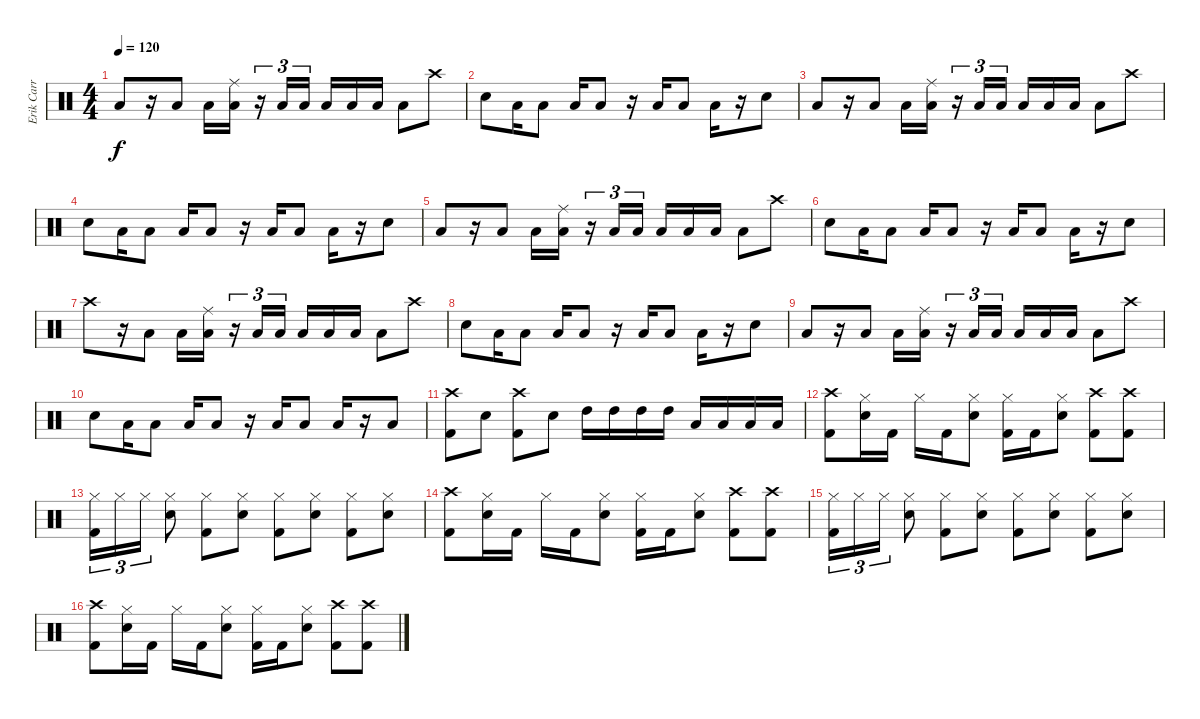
\track ("Erik Carr / Drums" "Erik Carr ") {instrument percussion}
\staff {score}
\articulation defaults
\ts (4 4)
\tempo 120
\clef neutral
\ks c "Low Tom (hit)".8{dy f}
r.16 "Low Tom (hit)".8 "Low Tom (hit)".16 ("Low Tom (hit)" "Ride (middle)").16 r.16{tu (3 2)} "Low Tom (hit)".16{tu (3 2)} "Low Tom (hit)".16{tu (3 2)} "Low Tom (hit)".16 "Low Tom (hit)".16 "Low Tom (hit)".16 "Low Tom (hit)".8 "Crash high (hit)".8 |
"Electric Snare (hit)".8 "Low Tom (hit)".16 "Low Tom (hit)".8 "Low Tom (hit)".16 "Low Tom (hit)".8 r.16 "Low Tom (hit)".16 "Low Tom (hit)".8 "Low Tom (hit)".16 r.16 "Electric Snare (hit)".8 |
"Low Tom (hit)".8 r.16 "Low Tom (hit)".8 "Low Tom (hit)".16 ("Low Tom (hit)" "Ride (middle)").16 r.16{tu (3 2)} "Low Tom (hit)".16{tu (3 2)} "Low Tom (hit)".16{tu (3 2)} "Low Tom (hit)".16 "Low Tom (hit)".16 "Low Tom (hit)".16 "Low Tom (hit)".8 "Crash high (hit)".8 |
"Electric Snare (hit)".8 "Low Tom (hit)".16 "Low Tom (hit)".8 "Low Tom (hit)".16 "Low Tom (hit)".8 r.16 "Low Tom (hit)".16 "Low Tom (hit)".8 "Low Tom (hit)".16 r.16 "Electric Snare (hit)".8 |
"Low Tom (hit)".8 r.16 "Low Tom (hit)".8 "Low Tom (hit)".16 ("Low Tom (hit)" "Ride (middle)").16 r.16{tu (3 2)} "Low Tom (hit)".16{tu (3 2)} "Low Tom (hit)".16{tu (3 2)} "Low Tom (hit)".16 "Low Tom (hit)".16 "Low Tom (hit)".16 "Low Tom (hit)".8 "Crash high (hit)".8 |
"Electric Snare (hit)".8 "Low Tom (hit)".16 "Low Tom (hit)".8 "Low Tom (hit)".16 "Low Tom (hit)".8 r.16 "Low Tom (hit)".16 "Low Tom (hit)".8 "Low Tom (hit)".16 r.16 "Electric Snare (hit)".8 |
"Crash high (hit)".8 r.16 "Low Tom (hit)".8 "Low Tom (hit)".16 ("Low Tom (hit)" "Ride (middle)").16 r.16{tu (3 2)} "Low Tom (hit)".16{tu (3 2)} "Low Tom (hit)".16{tu (3 2)} "Low Tom (hit)".16 "Low Tom (hit)".16 "Low Tom (hit)".16 "Low Tom (hit)".8 "Crash high (hit)".8 |
"Electric Snare (hit)".8 "Low Tom (hit)".16 "Low Tom (hit)".8 "Low Tom (hit)".16 "Low Tom (hit)".8 r.16 "Low Tom (hit)".16 "Low Tom (hit)".8 "Low Tom (hit)".16 r.16 "Electric Snare (hit)".8 |
"Low Tom (hit)".8 r.16 "Low Tom (hit)".8 "Low Tom (hit)".16 ("Low Tom (hit)" "Ride (middle)").16 r.16{tu (3 2)} "Low Tom (hit)".16{tu (3 2)} "Low Tom (hit)".16{tu (3 2)} "Low Tom (hit)".16 "Low Tom (hit)".16 "Low Tom (hit)".16 "Low Tom (hit)".8 "Crash high (hit)".8 |
"Electric Snare (hit)".8 "Low Tom (hit)".16 "Low Tom (hit)".8 "Low Tom (hit)".16 "Low Tom (hit)".8 r.16 "Low Tom (hit)".16 "Low Tom (hit)".8 "Low Tom (hit)".16 r.16 "Low Tom (hit)".8 |
("Crash high (hit)" "Kick (hit) 2").8 "Electric Snare (hit)".8 ("Crash high (hit)" "Kick (hit) 2").8 "Electric Snare (hit)".8 "High Tom (hit)".16 "High Tom (hit)".16 "High Tom (hit)".16 "High Tom (hit)".16 "Low Tom (hit)".16 "Low Tom (hit)".16 "Low Tom (hit)".16 "Low Tom (hit)".16 |
("Crash high (hit)" "Kick (hit) 2").8 ("Hi-Hat (closed)" "Electric Snare (hit)").16 "Kick (hit) 2".16 "Hi-Hat (closed)".16 "Kick (hit) 2".16 ("Hi-Hat (closed)" "Electric Snare (hit)").8 ("Hi-Hat (closed)" "Kick (hit) 2").16 "Kick (hit) 2".16 ("Hi-Hat (closed)" "Electric Snare (hit)").8 ("Crash high (hit)" "Kick (hit) 2").8 ("Crash high (hit)" "Kick (hit) 2").8 |
("Hi-Hat (closed)" "Kick (hit) 2").16{tu (3 2)} "Hi-Hat (closed)".16{tu (3 2)} "Hi-Hat (closed)".16{tu (3 2)} ("Hi-Hat (closed)" "Electric Snare (hit)").8 ("Hi-Hat (closed)" "Kick (hit) 2").8 ("Hi-Hat (closed)" "Electric Snare (hit)").8 ("Hi-Hat (closed)" "Kick (hit) 2").8 ("Hi-Hat (closed)" "Electric Snare (hit)").8 ("Hi-Hat (closed)" "Kick (hit) 2").8 ("Hi-Hat (closed)" "Electric Snare (hit)").8 |
("Crash high (hit)" "Kick (hit) 2").8 ("Hi-Hat (closed)" "Electric Snare (hit)").16 "Kick (hit) 2".16 "Hi-Hat (closed)".16 "Kick (hit) 2".16 ("Hi-Hat (closed)" "Electric Snare (hit)").8 ("Hi-Hat (closed)" "Kick (hit) 2").16 "Kick (hit) 2".16 ("Hi-Hat (closed)" "Electric Snare (hit)").8 ("Crash high (hit)" "Kick (hit) 2").8 ("Crash high (hit)" "Kick (hit) 2").8 |
("Hi-Hat (closed)" "Kick (hit) 2").16{tu (3 2)} "Hi-Hat (closed)".16{tu (3 2)} "Hi-Hat (closed)".16{tu (3 2)} ("Hi-Hat (closed)" "Electric Snare (hit)").8 ("Hi-Hat (closed)" "Kick (hit) 2").8 ("Hi-Hat (closed)" "Electric Snare (hit)").8 ("Hi-Hat (closed)" "Kick (hit) 2").8 ("Hi-Hat (closed)" "Electric Snare (hit)").8 ("Hi-Hat (closed)" "Kick (hit) 2").8 ("Hi-Hat (closed)" "Electric Snare (hit)").8 |
("Crash high (hit)" "Kick (hit) 2").8 ("Hi-Hat (closed)" "Electric Snare (hit)").16 "Kick (hit) 2".16 "Hi-Hat (closed)".16 "Kick (hit) 2".16 ("Hi-Hat (closed)" "Electric Snare (hit)").8 ("Hi-Hat (closed)" "Kick (hit) 2").16 "Kick (hit) 2".16 ("Hi-Hat (closed)" "Electric Snare (hit)").8 ("Crash high (hit)" "Kick (hit) 2").8 ("Crash high (hit)" "Kick (hit) 2").8
